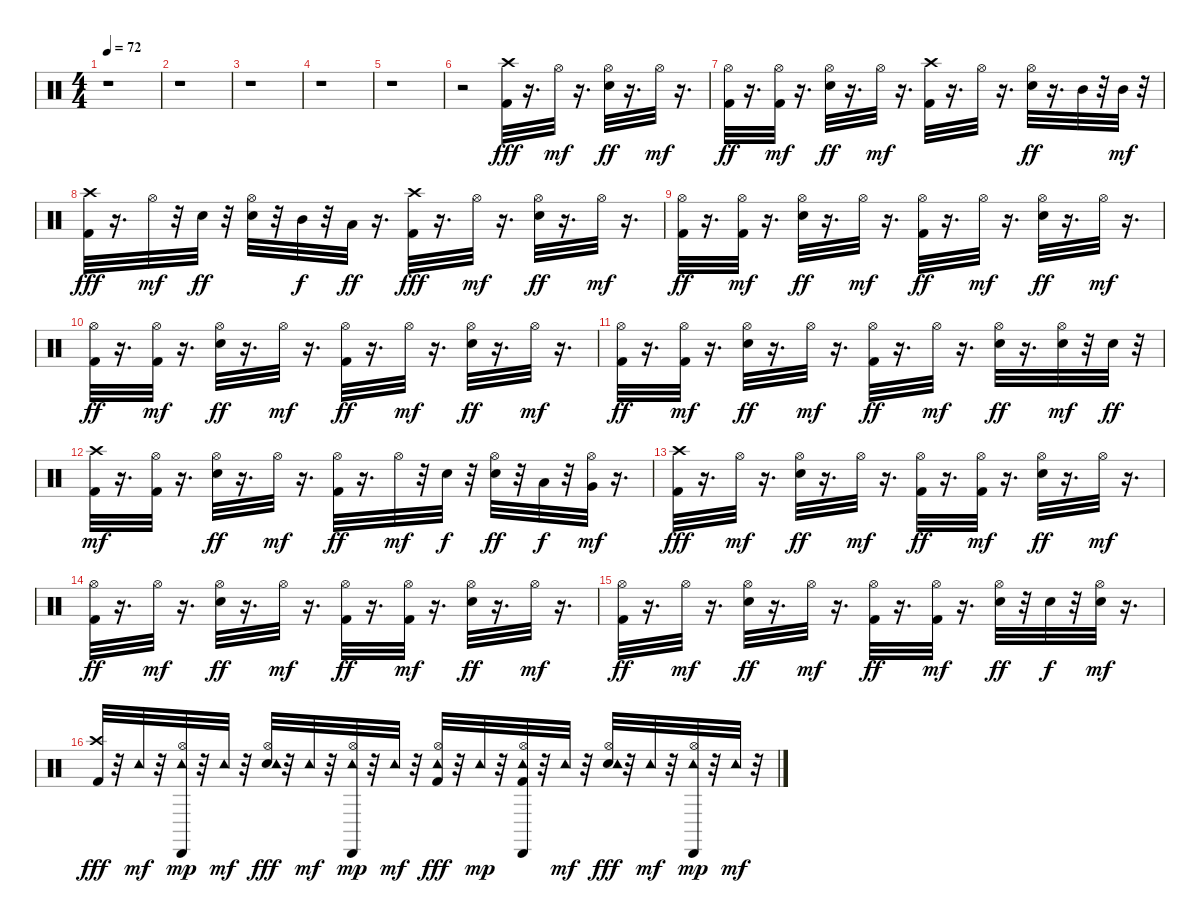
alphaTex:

\track "" {instrument percussion}
\staff {score}
\articulation defaults
\ts (4 4)
\tempo 72
\clef neutral
\ks c
r.1{dy f} |
r.1 |
r.1 |
r.1 |
r.1 |
r.2 ("Kick (hit) 2" "Crash high (hit)").32{dy fff} r.16{d} "Hi-Hat (open)".32{dy mf} r.16{d} ("Electric Snare (hit)" "Hi-Hat (open)").32{dy ff} r.16{d} "Hi-Hat (open)".32{dy mf} r.16{d} |
("Kick (hit) 2" "Hi-Hat (open)").32{dy ff} r.16{d} ("Kick (hit) 2" "Hi-Hat (open)").32{dy mf} r.16{d} ("Electric Snare (hit)" "Hi-Hat (open)").32{dy ff} r.16{d} "Hi-Hat (open)".32{dy mf} r.16{d} ("Kick (hit) 2" "Crash high (hit)").32 r.16{d} "Hi-Hat (open)".32 r.16{d} ("Electric Snare (hit)" "Hi-Hat (open)").32{dy ff} r.16{d} "Mid Tom (hit)".32 r.32 "Mid Tom (hit)".32{dy mf} r.32 |
("Kick (hit) 2" "Crash high (hit)").32{dy fff} r.16{d} "Hi-Hat (open)".32{dy mf} r.32 "Electric Snare (hit)".32{dy ff} r.32 ("Electric Snare (hit)" "Hi-Hat (open)").32 r.32 "Mid Tom (hit)".32{dy f} r.32 "Low Tom (hit)".32{dy ff} r.16{d} ("Kick (hit) 2" "Crash high (hit)").32{dy fff} r.16{d} "Hi-Hat (open)".32{dy mf} r.16{d} ("Electric Snare (hit)" "Hi-Hat (open)").32{dy ff} r.16{d} "Hi-Hat (open)".32{dy mf} r.16{d} |
("Kick (hit) 2" "Hi-Hat (open)").32{dy ff} r.16{d} ("Kick (hit) 2" "Hi-Hat (open)").32{dy mf} r.16{d} ("Electric Snare (hit)" "Hi-Hat (open)").32{dy ff} r.16{d} "Hi-Hat (open)".32{dy mf} r.16{d} ("Kick (hit) 2" "Hi-Hat (open)").32{dy ff} r.16{d} "Hi-Hat (open)".32{dy mf} r.16{d} ("Electric Snare (hit)" "Hi-Hat (open)").32{dy ff} r.16{d} "Hi-Hat (open)".32{dy mf} r.16{d} |
("Kick (hit) 2" "Hi-Hat (open)").32{dy ff} r.16{d} ("Kick (hit) 2" "Hi-Hat (open)").32{dy mf} r.16{d} ("Electric Snare (hit)" "Hi-Hat (open)").32{dy ff} r.16{d} "Hi-Hat (open)".32{dy mf} r.16{d} ("Kick (hit) 2" "Hi-Hat (open)").32{dy ff} r.16{d} "Hi-Hat (open)".32{dy mf} r.16{d} ("Electric Snare (hit)" "Hi-Hat (open)").32{dy ff} r.16{d} "Hi-Hat (open)".32{dy mf} r.16{d} |
("Kick (hit) 2" "Hi-Hat (open)").32{dy ff} r.16{d} ("Kick (hit) 2" "Hi-Hat (open)").32{dy mf} r.16{d} ("Electric Snare (hit)" "Hi-Hat (open)").32{dy ff} r.16{d} "Hi-Hat (open)".32{dy mf} r.16{d} ("Kick (hit) 2" "Hi-Hat (open)").32{dy ff} r.16{d} "Hi-Hat (open)".32{dy mf} r.16{d} ("Electric Snare (hit)" "Hi-Hat (open)").32{dy ff} r.16{d} ("Electric Snare (hit)" "Hi-Hat (open)").32{dy mf} r.32 "Electric Snare (hit)".32{dy ff} r.32 |
("Kick (hit) 2" "Crash high (hit)").32{dy mf} r.16{d} ("Kick (hit) 2" "Hi-Hat (open)").32 r.16{d} ("Electric Snare (hit)" "Hi-Hat (open)").32{dy ff} r.16{d} "Hi-Hat (open)".32{dy mf} r.16{d} ("Kick (hit) 2" "Hi-Hat (open)").32{dy ff} r.16{d} "Hi-Hat (open)".32{dy mf} r.32 "Electric Snare (hit)".32{dy f} r.32 ("Electric Snare (hit)" "Hi-Hat (open)").32{dy ff} r.32 "Low Tom (hit)".32{dy f} r.32 ("Very Low Tom (hit)" "Hi-Hat (open)").32{dy mf} r.16{d} |
("Kick (hit) 2" "Crash high (hit)").32{dy fff} r.16{d} "Hi-Hat (open)".32{dy mf} r.16{d} ("Electric Snare (hit)" "Hi-Hat (open)").32{dy ff} r.16{d} "Hi-Hat (open)".32{dy mf} r.16{d} ("Kick (hit) 2" "Hi-Hat (open)").32{dy ff} r.16{d} ("Kick (hit) 2" "Hi-Hat (open)").32{dy mf} r.16{d} ("Electric Snare (hit)" "Hi-Hat (open)").32{dy ff} r.16{d} "Hi-Hat (open)".32{dy mf} r.16{d} |
("Kick (hit) 2" "Hi-Hat (open)").32{dy ff} r.16{d} "Hi-Hat (open)".32{dy mf} r.16{d} ("Electric Snare (hit)" "Hi-Hat (open)").32{dy ff} r.16{d} "Hi-Hat (open)".32{dy mf} r.16{d} ("Kick (hit) 2" "Hi-Hat (open)").32{dy ff} r.16{d} ("Kick (hit) 2" "Hi-Hat (open)").32{dy mf} r.16{d} ("Electric Snare (hit)" "Hi-Hat (open)").32{dy ff} r.16{d} "Hi-Hat (open)".32{dy mf} r.16{d} |
("Kick (hit) 2" "Hi-Hat (open)").32{dy ff} r.16{d} "Hi-Hat (open)".32{dy mf} r.16{d} ("Electric Snare (hit)" "Hi-Hat (open)").32{dy ff} r.16{d} "Hi-Hat (open)".32{dy mf} r.16{d} ("Kick (hit) 2" "Hi-Hat (open)").32{dy ff} r.16{d} ("Kick (hit) 2" "Hi-Hat (open)").32{dy mf} r.16{d} ("Electric Snare (hit)" "Hi-Hat (open)").32{dy ff} r.32 "Electric Snare (hit)".32{dy f} r.32 ("Electric Snare (hit)" "Hi-Hat (open)").32{dy mf} r.16{d} |
("Kick (hit) 2" "Crash high (hit)").32{dy fff} r.32 "Tambourine (hit)".32{dy mf} r.32 ("Hi-Hat (open)" "Cabasa (hit)" "Tambourine (hit)").32{dy mp} r.32 "Tambourine (hit)".32{dy mf} r.32 ("Electric Snare (hit)" "Hi-Hat (open)" "Tambourine (hit)").32{dy fff} r.32 "Tambourine (hit)".32{dy mf} r.32 ("Hi-Hat (open)" "Cabasa (hit)" "Tambourine (hit)").32{dy mp} r.32 "Tambourine (hit)".32{dy mf} r.32 ("Kick (hit) 2" "Hi-Hat (open)" "Tambourine (hit)").32{dy fff} r.32 "Tambourine (hit)".32{dy mp} r.32 ("Kick (hit) 2" "Hi-Hat (open)" "Cabasa (hit)" "Tambourine (hit)").32 r.32 "Tambourine (hit)".32{dy mf} r.32 ("Electric Snare (hit)" "Hi-Hat (open)" "Tambourine (hit)").32{dy fff} r.32 "Tambourine (hit)".32{dy mf} r.32 ("Hi-Hat (open)" "Cabasa (hit)" "Tambourine (hit)").32{dy mp} r.32 "Tambourine (hit)".32{dy mf} r.32
